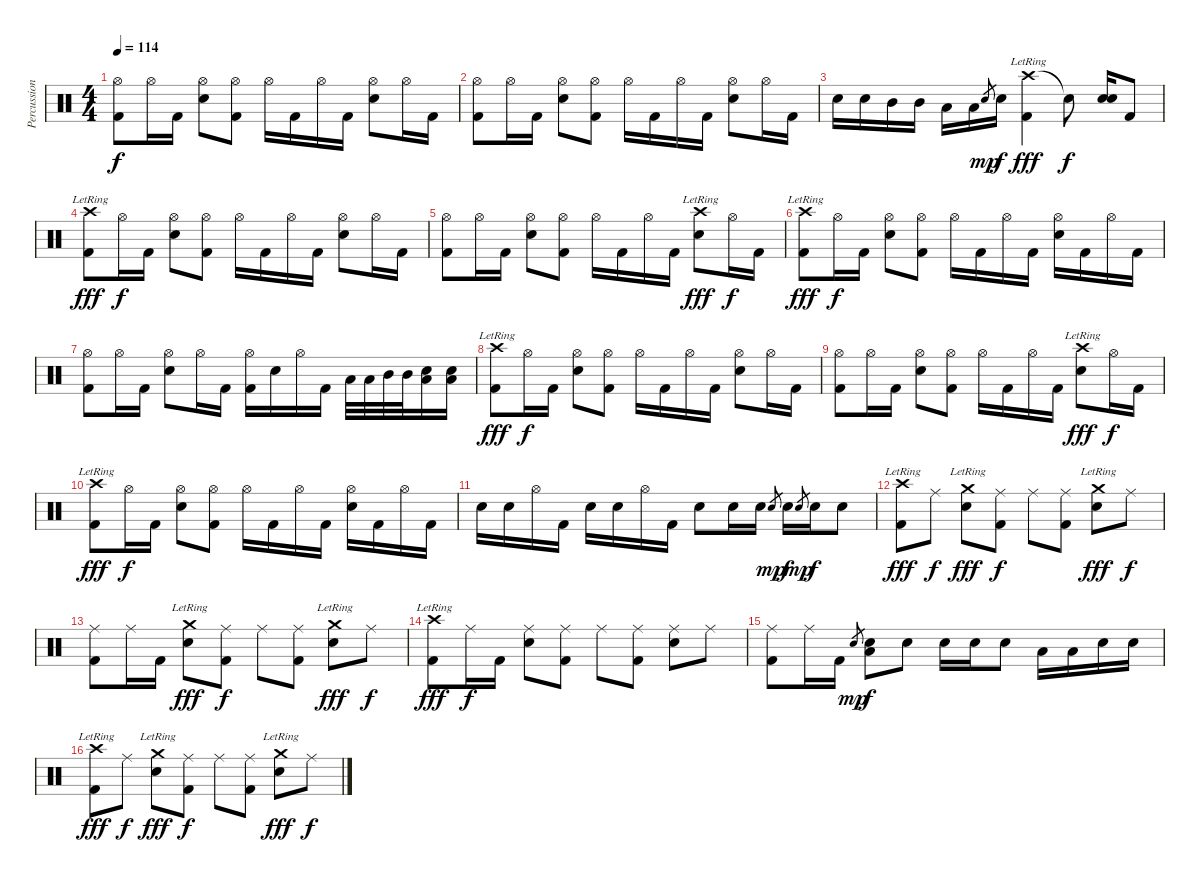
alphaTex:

\track ("Percussion" "Percussion") {instrument percussion}
\staff {score}
\articulation defaults
\ts (4 4)
\tempo 114
\clef neutral
\ks c
("Hi-Hat (open)" "Kick (hit) 2").8{dy f} "Hi-Hat (open)".16 "Kick (hit) 2".16 ("Hi-Hat (open)" "Snare (hit) 2").8 ("Hi-Hat (open)" "Kick (hit) 2").8 "Hi-Hat (open)".16 "Kick (hit) 2".16 "Hi-Hat (open)".16 "Kick (hit) 2".16 ("Hi-Hat (open)" "Snare (hit) 2").8 "Hi-Hat (open)".16 "Kick (hit) 2".16 |
("Hi-Hat (open)" "Kick (hit) 2").8 "Hi-Hat (open)".16 "Kick (hit) 2".16 ("Hi-Hat (open)" "Snare (hit) 2").8 ("Hi-Hat (open)" "Kick (hit) 2").8 "Hi-Hat (open)".16 "Kick (hit) 2".16 "Hi-Hat (open)".16 "Kick (hit) 2".16 ("Hi-Hat (open)" "Snare (hit) 2").8 "Hi-Hat (open)".16 "Kick (hit) 2".16 |
"Snare (hit) 2".16 "Snare (hit) 2".16 "Mid Tom (hit)".16 "Mid Tom (hit)".16 "Low Tom (hit)".16 "Low Tom (hit)".16 "Snare (hit) 2".8{gr dy mp} "Snare (hit) 2".16{dy f} ("Crash high (hit)"{lr} "Kick (hit) 2").4{dy fff} "Snare (hit)"{t}.8{dy f} ("Snare (hit) 2" "Snare (hit) 2").16 "Kick (hit) 2".8 |
("Crash high (hit)"{lr} "Kick (hit) 2").8{dy fff} "Hi-Hat (open)".16{dy f} "Kick (hit) 2".16 ("Hi-Hat (open)" "Snare (hit) 2").8 ("Hi-Hat (open)" "Kick (hit) 2").8 "Hi-Hat (open)".16 "Kick (hit) 2".16 "Hi-Hat (open)".16 "Kick (hit) 2".16 ("Hi-Hat (open)" "Snare (hit) 2").8 "Hi-Hat (open)".16 "Kick (hit) 2".16 |
("Hi-Hat (open)" "Kick (hit) 2").8 "Hi-Hat (open)".16 "Kick (hit) 2".16 ("Hi-Hat (open)" "Snare (hit) 2").8 ("Hi-Hat (open)" "Kick (hit) 2").8 "Hi-Hat (open)".16 "Kick (hit) 2".16 "Hi-Hat (open)".16 "Kick (hit) 2".16 ("Crash high (hit)"{lr} "Snare (hit) 2").8{dy fff} "Hi-Hat (open)".16{dy f} "Kick (hit) 2".16 |
("Crash high (hit)"{lr} "Kick (hit) 2").8{dy fff} "Hi-Hat (open)".16{dy f} "Kick (hit) 2".16 ("Hi-Hat (open)" "Snare (hit) 2").8 ("Hi-Hat (open)" "Kick (hit) 2").8 "Hi-Hat (open)".16 "Kick (hit) 2".16 "Hi-Hat (open)".16 "Kick (hit) 2".16 ("Hi-Hat (open)" "Snare (hit) 2").16 "Kick (hit) 2".16 "Hi-Hat (open)".16 "Kick (hit) 2".16 |
("Hi-Hat (open)" "Kick (hit) 2").8 "Hi-Hat (open)".16 "Kick (hit) 2".16 ("Hi-Hat (open)" "Snare (hit) 2").8 "Hi-Hat (open)".16 "Kick (hit) 2".16 ("Hi-Hat (open)" "Kick (hit) 2").16 "Snare (hit) 2".16 "Hi-Hat (open)".16 "Kick (hit) 2".16 "Low Tom (hit)".32 "Low Tom (hit)".32 "Mid Tom (hit)".32 "Mid Tom (hit)".32 ("Low Tom (hit)" "Snare (hit) 2").16 ("Low Tom (hit)" "Snare (hit) 2").16 |
("Crash high (hit)"{lr} "Kick (hit) 2").8{dy fff} "Hi-Hat (open)".16{dy f} "Kick (hit) 2".16 ("Hi-Hat (open)" "Snare (hit) 2").8 ("Hi-Hat (open)" "Kick (hit) 2").8 "Hi-Hat (open)".16 "Kick (hit) 2".16 "Hi-Hat (open)".16 "Kick (hit) 2".16 ("Hi-Hat (open)" "Snare (hit) 2").8 "Hi-Hat (open)".16 "Kick (hit) 2".16 |
("Hi-Hat (open)" "Kick (hit) 2").8 "Hi-Hat (open)".16 "Kick (hit) 2".16 ("Hi-Hat (open)" "Snare (hit) 2").8 ("Hi-Hat (open)" "Kick (hit) 2").8 "Hi-Hat (open)".16 "Kick (hit) 2".16 "Hi-Hat (open)".16 "Kick (hit) 2".16 ("Crash high (hit)"{lr} "Snare (hit) 2").8{dy fff} "Hi-Hat (open)".16{dy f} "Kick (hit) 2".16 |
("Crash high (hit)"{lr} "Kick (hit) 2").8{dy fff} "Hi-Hat (open)".16{dy f} "Kick (hit) 2".16 ("Hi-Hat (open)" "Snare (hit) 2").8 ("Hi-Hat (open)" "Kick (hit) 2").8 "Hi-Hat (open)".16 "Kick (hit) 2".16 "Hi-Hat (open)".16 "Kick (hit) 2".16 ("Hi-Hat (open)" "Snare (hit) 2").16 "Kick (hit) 2".16 "Hi-Hat (open)".16 "Kick (hit) 2".16 |
"Snare (hit) 2".16 "Snare (hit) 2".16 "Hi-Hat (open)".16 "Kick (hit) 2".16 "Snare (hit) 2".16 "Snare (hit) 2".16 "Hi-Hat (open)".16 "Kick (hit) 2".16 "Snare (hit) 2".8 "Snare (hit) 2".16 "Snare (hit) 2".16 "Snare (hit) 2".8{gr dy mp} "Snare (hit) 2".16{dy f} "Snare (hit) 2".8{gr dy mp} "Snare (hit) 2".16{dy f} "Snare (hit) 2".8 |
("Crash high (hit)"{lr} "Kick (hit) 2").8{dy fff} "Ride (middle)".8{dy f} ("Crash medium (hit)"{lr} "Snare (hit) 2").8{dy fff} ("Ride (middle)" "Kick (hit) 2").8{dy f} "Ride (middle)".8 ("Ride (middle)" "Kick (hit) 2").8 ("Crash medium (hit)"{lr} "Snare (hit) 2").8{dy fff} "Ride (middle)".8{dy f} |
("Ride (middle)" "Kick (hit) 2").8 "Ride (middle)".16 "Kick (hit) 2".16 ("Crash medium (hit)"{lr} "Snare (hit) 2").8{dy fff} ("Ride (middle)" "Kick (hit) 2").8{dy f} "Ride (middle)".8 ("Ride (middle)" "Kick (hit) 2").8 ("Crash medium (hit)"{lr} "Snare (hit) 2").8{dy fff} "Ride (middle)".8{dy f} |
("Crash high (hit)"{lr} "Kick (hit) 2").8{dy fff} "Ride (middle)".16{dy f} "Kick (hit) 2".16 ("Ride (middle)" "Snare (hit) 2").8 ("Ride (middle)" "Kick (hit) 2").8 "Ride (middle)".8 ("Ride (middle)" "Kick (hit) 2").8 ("Ride (middle)" "Snare (hit) 2").8 "Ride (middle)".8 |
("Ride (middle)" "Kick (hit) 2").8 "Ride (middle)".16 "Kick (hit) 2".16 "Snare (hit) 2".8{gr dy mp} ("Low Tom (hit)" "Snare (hit) 2").8{dy f} "Snare (hit) 2".8 "Snare (hit) 2".16 "Snare (hit) 2".16 "Snare (hit) 2".8 "Low Tom (hit)".16 "Low Tom (hit)".16 "Snare (hit) 2".16 "Snare (hit) 2".16 |
("Crash high (hit)"{lr} "Kick (hit) 2").8{dy fff} "Ride (middle)".8{dy f} ("Crash medium (hit)"{lr} "Snare (hit) 2").8{dy fff} ("Ride (middle)" "Kick (hit) 2").8{dy f} "Ride (middle)".8 ("Ride (middle)" "Kick (hit) 2").8 ("Crash medium (hit)"{lr} "Snare (hit) 2").8{dy fff} "Ride (middle)".8{dy f}
